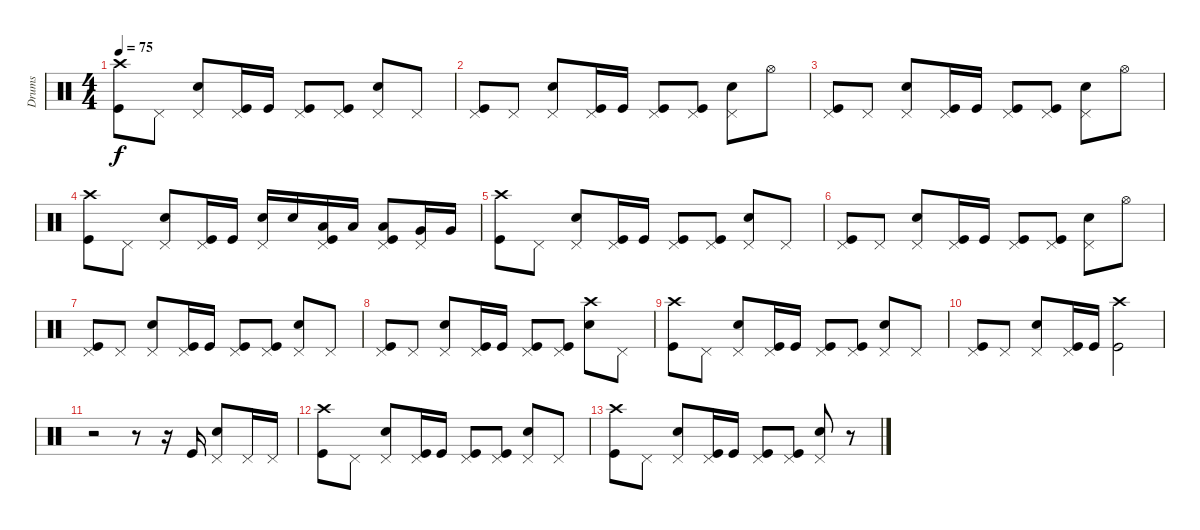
\track ("Drums" "Drums") {instrument percussion}
\staff {score}
\articulation defaults
\ts (4 4)
\tempo 75
\clef neutral
\ks c
("Crash high (hit)" "Kick (hit)").8{dy f} "Pedal Hi-Hat (hit)".8 ("Pedal Hi-Hat (hit)" "Electric Snare (hit)").8 ("Pedal Hi-Hat (hit)" "Kick (hit)").16 "Kick (hit)".16 ("Pedal Hi-Hat (hit)" "Kick (hit)").8 ("Pedal Hi-Hat (hit)" "Kick (hit)").8 ("Pedal Hi-Hat (hit)" "Electric Snare (hit)").8 "Pedal Hi-Hat (hit)".8 |
("Pedal Hi-Hat (hit)" "Kick (hit)").8 "Pedal Hi-Hat (hit)".8 ("Pedal Hi-Hat (hit)" "Electric Snare (hit)").8 ("Pedal Hi-Hat (hit)" "Kick (hit)").16 "Kick (hit)".16 ("Pedal Hi-Hat (hit)" "Kick (hit)").8 ("Pedal Hi-Hat (hit)" "Kick (hit)").8 ("Pedal Hi-Hat (hit)" "Electric Snare (hit)").8 "Hi-Hat (open)".8 |
("Pedal Hi-Hat (hit)" "Kick (hit)").8 "Pedal Hi-Hat (hit)".8 ("Pedal Hi-Hat (hit)" "Electric Snare (hit)").8 ("Pedal Hi-Hat (hit)" "Kick (hit)").16 "Kick (hit)".16 ("Pedal Hi-Hat (hit)" "Kick (hit)").8 ("Pedal Hi-Hat (hit)" "Kick (hit)").8 ("Pedal Hi-Hat (hit)" "Electric Snare (hit)").8 "Hi-Hat (open)".8 |
("Crash high (hit)" "Kick (hit)").8 "Pedal Hi-Hat (hit)".8 ("Pedal Hi-Hat (hit)" "Electric Snare (hit)").8 ("Pedal Hi-Hat (hit)" "Kick (hit)").16 "Kick (hit)".16 ("Pedal Hi-Hat (hit)" "Electric Snare (hit)").16 "Electric Snare (hit)".16 ("Pedal Hi-Hat (hit)" "Low Tom (hit)" "Kick (hit)").16 "Low Tom (hit)".16 ("Pedal Hi-Hat (hit)" "Low Tom (hit)" "Kick (hit)").8 ("Pedal Hi-Hat (hit)" "Very Low Tom (hit)").16 "Very Low Tom (hit)".16 |
("Crash high (hit)" "Kick (hit)").8 "Pedal Hi-Hat (hit)".8 ("Pedal Hi-Hat (hit)" "Electric Snare (hit)").8 ("Pedal Hi-Hat (hit)" "Kick (hit)").16 "Kick (hit)".16 ("Pedal Hi-Hat (hit)" "Kick (hit)").8 ("Pedal Hi-Hat (hit)" "Kick (hit)").8 ("Pedal Hi-Hat (hit)" "Electric Snare (hit)").8 "Pedal Hi-Hat (hit)".8 |
("Pedal Hi-Hat (hit)" "Kick (hit)").8 "Pedal Hi-Hat (hit)".8 ("Pedal Hi-Hat (hit)" "Electric Snare (hit)").8 ("Pedal Hi-Hat (hit)" "Kick (hit)").16 "Kick (hit)".16 ("Pedal Hi-Hat (hit)" "Kick (hit)").8 ("Pedal Hi-Hat (hit)" "Kick (hit)").8 ("Pedal Hi-Hat (hit)" "Electric Snare (hit)").8 "Hi-Hat (open)".8 |
("Pedal Hi-Hat (hit)" "Kick (hit)").8 "Pedal Hi-Hat (hit)".8 ("Pedal Hi-Hat (hit)" "Electric Snare (hit)").8 ("Pedal Hi-Hat (hit)" "Kick (hit)").16 "Kick (hit)".16 ("Pedal Hi-Hat (hit)" "Kick (hit)").8 ("Pedal Hi-Hat (hit)" "Kick (hit)").8 ("Pedal Hi-Hat (hit)" "Electric Snare (hit)").8 "Pedal Hi-Hat (hit)".8 |
("Pedal Hi-Hat (hit)" "Kick (hit)").8 "Pedal Hi-Hat (hit)".8 ("Pedal Hi-Hat (hit)" "Electric Snare (hit)").8 ("Pedal Hi-Hat (hit)" "Kick (hit)").16 "Kick (hit)".16 ("Pedal Hi-Hat (hit)" "Kick (hit)").8 ("Pedal Hi-Hat (hit)" "Kick (hit)").8 ("Crash high (hit)" "Electric Snare (hit)").8 "Pedal Hi-Hat (hit)".8 |
("Crash high (hit)" "Kick (hit)").8 "Pedal Hi-Hat (hit)".8 ("Pedal Hi-Hat (hit)" "Electric Snare (hit)").8 ("Pedal Hi-Hat (hit)" "Kick (hit)").16 "Kick (hit)".16 ("Pedal Hi-Hat (hit)" "Kick (hit)").8 ("Pedal Hi-Hat (hit)" "Kick (hit)").8 ("Pedal Hi-Hat (hit)" "Electric Snare (hit)").8 "Pedal Hi-Hat (hit)".8 |
("Pedal Hi-Hat (hit)" "Kick (hit)").8 "Pedal Hi-Hat (hit)".8 ("Pedal Hi-Hat (hit)" "Electric Snare (hit)").8 ("Pedal Hi-Hat (hit)" "Kick (hit)").16 "Kick (hit)".16 ("Crash high (hit)" "Kick (hit)").2 |
r.2 r.8 r.16 "Kick (hit)".16 ("Pedal Hi-Hat (hit)" "Electric Snare (hit)").8 "Pedal Hi-Hat (hit)".16 "Pedal Hi-Hat (hit)".16 |
("Crash high (hit)" "Kick (hit)").8 "Pedal Hi-Hat (hit)".8 ("Pedal Hi-Hat (hit)" "Electric Snare (hit)").8 ("Pedal Hi-Hat (hit)" "Kick (hit)").16 "Kick (hit)".16 ("Pedal Hi-Hat (hit)" "Kick (hit)").8 ("Pedal Hi-Hat (hit)" "Kick (hit)").8 ("Pedal Hi-Hat (hit)" "Electric Snare (hit)").8 "Pedal Hi-Hat (hit)".8 |
("Crash high (hit)" "Kick (hit)").8 "Pedal Hi-Hat (hit)".8 ("Pedal Hi-Hat (hit)" "Electric Snare (hit)").8 ("Pedal Hi-Hat (hit)" "Kick (hit)").16 "Kick (hit)".16 ("Pedal Hi-Hat (hit)" "Kick (hit)").8 ("Pedal Hi-Hat (hit)" "Kick (hit)").8 ("Pedal Hi-Hat (hit)" "Electric Snare (hit)").8 r.8
